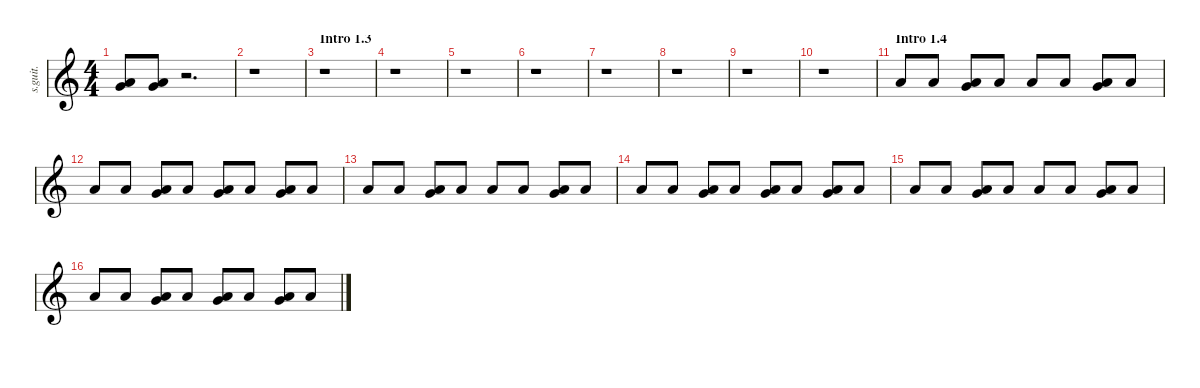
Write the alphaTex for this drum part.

\defaultSystemsLayout 4
\hideDynamics
\bracketExtendMode nobrackets
\track ("Chris Fehn" "s.guit.") {instrument percussion}
\staff {score}
\articulation defaults
\ts (4 4)
\tempo (192 hide)
\clef g2
\ks c
("Very Low Tom (hit)" "Low Floor Tom (hit)").8{lyrics (0 "") lyrics (1 "") lyrics (2 "") lyrics (3 "") lyrics (4 "") dy f} ("Very Low Tom (hit)" "Low Floor Tom (hit)").8{lyrics (0 "") lyrics (1 "") lyrics (2 "") lyrics (3 "") lyrics (4 "")} r.2{d} |
r.1 |
\section ("" "Intro 1.3")
\tempo (195 hide)
r.1 |
r.1 |
r.1 |
\tempo (200 hide)
r.1 |
\tempo (205 hide)
r.1 |
r.1 |
r.1 |
r.1 |
\section ("" "Intro 1.4")
\tempo (210 hide)
"Low Floor Tom (hit)".8{lyrics (0 "") lyrics (1 "") lyrics (2 "") lyrics (3 "") lyrics (4 "")} "Low Floor Tom (hit)".8{lyrics (0 "") lyrics (1 "") lyrics (2 "") lyrics (3 "") lyrics (4 "")} ("Very Low Tom (hit)" "Low Floor Tom (hit)").8{lyrics (0 "") lyrics (1 "") lyrics (2 "") lyrics (3 "") lyrics (4 "")} "Low Floor Tom (hit)".8{lyrics (0 "") lyrics (1 "") lyrics (2 "") lyrics (3 "") lyrics (4 "")} "Low Floor Tom (hit)".8{lyrics (0 "") lyrics (1 "") lyrics (2 "") lyrics (3 "") lyrics (4 "")} "Low Floor Tom (hit)".8{lyrics (0 "") lyrics (1 "") lyrics (2 "") lyrics (3 "") lyrics (4 "")} ("Very Low Tom (hit)" "Low Floor Tom (hit)").8{lyrics (0 "") lyrics (1 "") lyrics (2 "") lyrics (3 "") lyrics (4 "")} "Low Floor Tom (hit)".8{lyrics (0 "") lyrics (1 "") lyrics (2 "") lyrics (3 "") lyrics (4 "")} |
"Low Floor Tom (hit)".8{lyrics (0 "") lyrics (1 "") lyrics (2 "") lyrics (3 "") lyrics (4 "")} "Low Floor Tom (hit)".8{lyrics (0 "") lyrics (1 "") lyrics (2 "") lyrics (3 "") lyrics (4 "")} ("Very Low Tom (hit)" "Low Floor Tom (hit)").8{lyrics (0 "") lyrics (1 "") lyrics (2 "") lyrics (3 "") lyrics (4 "")} "Low Floor Tom (hit)".8{lyrics (0 "") lyrics (1 "") lyrics (2 "") lyrics (3 "") lyrics (4 "")} ("Very Low Tom (hit)" "Low Floor Tom (hit)").8{lyrics (0 "") lyrics (1 "") lyrics (2 "") lyrics (3 "") lyrics (4 "")} "Low Floor Tom (hit)".8{lyrics (0 "") lyrics (1 "") lyrics (2 "") lyrics (3 "") lyrics (4 "")} ("Very Low Tom (hit)" "Low Floor Tom (hit)").8{lyrics (0 "") lyrics (1 "") lyrics (2 "") lyrics (3 "") lyrics (4 "")} "Low Floor Tom (hit)".8{lyrics (0 "") lyrics (1 "") lyrics (2 "") lyrics (3 "") lyrics (4 "")} |
"Low Floor Tom (hit)".8{lyrics (0 "") lyrics (1 "") lyrics (2 "") lyrics (3 "") lyrics (4 "")} "Low Floor Tom (hit)".8{lyrics (0 "") lyrics (1 "") lyrics (2 "") lyrics (3 "") lyrics (4 "")} ("Very Low Tom (hit)" "Low Floor Tom (hit)").8{lyrics (0 "") lyrics (1 "") lyrics (2 "") lyrics (3 "") lyrics (4 "")} "Low Floor Tom (hit)".8{lyrics (0 "") lyrics (1 "") lyrics (2 "") lyrics (3 "") lyrics (4 "")} "Low Floor Tom (hit)".8{lyrics (0 "") lyrics (1 "") lyrics (2 "") lyrics (3 "") lyrics (4 "")} "Low Floor Tom (hit)".8{lyrics (0 "") lyrics (1 "") lyrics (2 "") lyrics (3 "") lyrics (4 "")} ("Very Low Tom (hit)" "Low Floor Tom (hit)").8{lyrics (0 "") lyrics (1 "") lyrics (2 "") lyrics (3 "") lyrics (4 "")} "Low Floor Tom (hit)".8{lyrics (0 "") lyrics (1 "") lyrics (2 "") lyrics (3 "") lyrics (4 "")} |
"Low Floor Tom (hit)".8{lyrics (0 "") lyrics (1 "") lyrics (2 "") lyrics (3 "") lyrics (4 "")} "Low Floor Tom (hit)".8{lyrics (0 "") lyrics (1 "") lyrics (2 "") lyrics (3 "") lyrics (4 "")} ("Very Low Tom (hit)" "Low Floor Tom (hit)").8{lyrics (0 "") lyrics (1 "") lyrics (2 "") lyrics (3 "") lyrics (4 "")} "Low Floor Tom (hit)".8{lyrics (0 "") lyrics (1 "") lyrics (2 "") lyrics (3 "") lyrics (4 "")} ("Very Low Tom (hit)" "Low Floor Tom (hit)").8{lyrics (0 "") lyrics (1 "") lyrics (2 "") lyrics (3 "") lyrics (4 "")} "Low Floor Tom (hit)".8{lyrics (0 "") lyrics (1 "") lyrics (2 "") lyrics (3 "") lyrics (4 "")} ("Very Low Tom (hit)" "Low Floor Tom (hit)").8{lyrics (0 "") lyrics (1 "") lyrics (2 "") lyrics (3 "") lyrics (4 "")} "Low Floor Tom (hit)".8{lyrics (0 "") lyrics (1 "") lyrics (2 "") lyrics (3 "") lyrics (4 "")} |
"Low Floor Tom (hit)".8{lyrics (0 "") lyrics (1 "") lyrics (2 "") lyrics (3 "") lyrics (4 "")} "Low Floor Tom (hit)".8{lyrics (0 "") lyrics (1 "") lyrics (2 "") lyrics (3 "") lyrics (4 "")} ("Very Low Tom (hit)" "Low Floor Tom (hit)").8{lyrics (0 "") lyrics (1 "") lyrics (2 "") lyrics (3 "") lyrics (4 "")} "Low Floor Tom (hit)".8{lyrics (0 "") lyrics (1 "") lyrics (2 "") lyrics (3 "") lyrics (4 "")} "Low Floor Tom (hit)".8{lyrics (0 "") lyrics (1 "") lyrics (2 "") lyrics (3 "") lyrics (4 "")} "Low Floor Tom (hit)".8{lyrics (0 "") lyrics (1 "") lyrics (2 "") lyrics (3 "") lyrics (4 "")} ("Very Low Tom (hit)" "Low Floor Tom (hit)").8{lyrics (0 "") lyrics (1 "") lyrics (2 "") lyrics (3 "") lyrics (4 "")} "Low Floor Tom (hit)".8{lyrics (0 "") lyrics (1 "") lyrics (2 "") lyrics (3 "") lyrics (4 "")} |
"Low Floor Tom (hit)".8{lyrics (0 "") lyrics (1 "") lyrics (2 "") lyrics (3 "") lyrics (4 "")} "Low Floor Tom (hit)".8{lyrics (0 "") lyrics (1 "") lyrics (2 "") lyrics (3 "") lyrics (4 "")} ("Very Low Tom (hit)" "Low Floor Tom (hit)").8{lyrics (0 "") lyrics (1 "") lyrics (2 "") lyrics (3 "") lyrics (4 "")} "Low Floor Tom (hit)".8{lyrics (0 "") lyrics (1 "") lyrics (2 "") lyrics (3 "") lyrics (4 "")} ("Very Low Tom (hit)" "Low Floor Tom (hit)").8{lyrics (0 "") lyrics (1 "") lyrics (2 "") lyrics (3 "") lyrics (4 "")} "Low Floor Tom (hit)".8{lyrics (0 "") lyrics (1 "") lyrics (2 "") lyrics (3 "") lyrics (4 "")} ("Very Low Tom (hit)" "Low Floor Tom (hit)").8{lyrics (0 "") lyrics (1 "") lyrics (2 "") lyrics (3 "") lyrics (4 "")} "Low Floor Tom (hit)".8{lyrics (0 "") lyrics (1 "") lyrics (2 "") lyrics (3 "") lyrics (4 "")}
